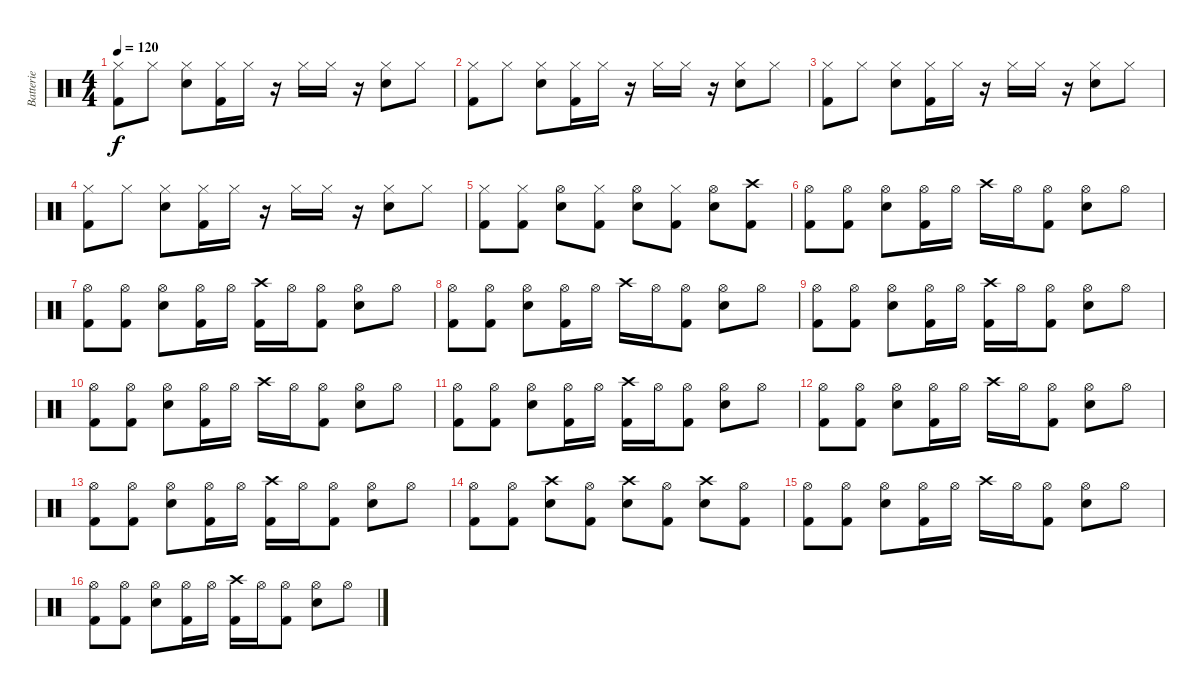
\track ("Batterie" "Batterie") {instrument percussion}
\staff {score}
\articulation defaults
\ts (4 4)
\tempo 120
\clef neutral
\ks c
("Hi-Hat (closed)" "Kick (hit) 2").8{dy f} "Hi-Hat (closed)".8 ("Hi-Hat (closed)" "Snare (hit) 2").8 ("Hi-Hat (closed)" "Kick (hit) 2").16 "Hi-Hat (closed)".16 r.16 "Hi-Hat (closed)".16 "Hi-Hat (closed)".16 r.16 ("Hi-Hat (closed)" "Snare (hit) 2").8 "Hi-Hat (closed)".8 |
("Hi-Hat (closed)" "Kick (hit) 2").8 "Hi-Hat (closed)".8 ("Hi-Hat (closed)" "Snare (hit) 2").8 ("Hi-Hat (closed)" "Kick (hit) 2").16 "Hi-Hat (closed)".16 r.16 "Hi-Hat (closed)".16 "Hi-Hat (closed)".16 r.16 ("Hi-Hat (closed)" "Snare (hit) 2").8 "Hi-Hat (closed)".8 |
("Hi-Hat (closed)" "Kick (hit) 2").8 "Hi-Hat (closed)".8 ("Hi-Hat (closed)" "Snare (hit) 2").8 ("Hi-Hat (closed)" "Kick (hit) 2").16 "Hi-Hat (closed)".16 r.16 "Hi-Hat (closed)".16 "Hi-Hat (closed)".16 r.16 ("Hi-Hat (closed)" "Snare (hit) 2").8 "Hi-Hat (closed)".8 |
("Hi-Hat (closed)" "Kick (hit) 2").8 "Hi-Hat (closed)".8 ("Hi-Hat (closed)" "Snare (hit) 2").8 ("Hi-Hat (closed)" "Kick (hit) 2").16 "Hi-Hat (closed)".16 r.16 "Hi-Hat (closed)".16 "Hi-Hat (closed)".16 r.16 ("Hi-Hat (closed)" "Snare (hit) 2").8 "Hi-Hat (closed)".8 |
("Hi-Hat (closed)" "Kick (hit) 2").8 ("Hi-Hat (closed)" "Kick (hit) 2").8 ("Hi-Hat (open)" "Snare (hit) 2").8 ("Hi-Hat (closed)" "Kick (hit) 2").8 ("Hi-Hat (open)" "Snare (hit) 2").8 ("Hi-Hat (closed)" "Kick (hit) 2").8 ("Hi-Hat (open)" "Snare (hit) 2").8 ("Crash high (hit)" "Kick (hit) 2").8 |
("Hi-Hat (open)" "Kick (hit) 2").8 ("Hi-Hat (open)" "Kick (hit) 2").8 ("Hi-Hat (open)" "Snare (hit) 2").8 ("Hi-Hat (open)" "Kick (hit) 2").16 "Hi-Hat (open)".16 "Crash high (hit)".16 "Hi-Hat (open)".16 ("Hi-Hat (open)" "Kick (hit) 2").8 ("Hi-Hat (open)" "Snare (hit) 2").8 "Hi-Hat (open)".8 |
("Hi-Hat (open)" "Kick (hit) 2").8 ("Hi-Hat (open)" "Kick (hit) 2").8 ("Hi-Hat (open)" "Snare (hit) 2").8 ("Hi-Hat (open)" "Kick (hit) 2").16 "Hi-Hat (open)".16 ("Crash high (hit)" "Kick (hit) 2").16 "Hi-Hat (open)".16 ("Hi-Hat (open)" "Kick (hit) 2").8 ("Hi-Hat (open)" "Snare (hit) 2").8 "Hi-Hat (open)".8 |
("Hi-Hat (open)" "Kick (hit) 2").8 ("Hi-Hat (open)" "Kick (hit) 2").8 ("Hi-Hat (open)" "Snare (hit) 2").8 ("Hi-Hat (open)" "Kick (hit) 2").16 "Hi-Hat (open)".16 "Crash high (hit)".16 "Hi-Hat (open)".16 ("Hi-Hat (open)" "Kick (hit) 2").8 ("Hi-Hat (open)" "Snare (hit) 2").8 "Hi-Hat (open)".8 |
("Hi-Hat (open)" "Kick (hit) 2").8 ("Hi-Hat (open)" "Kick (hit) 2").8 ("Hi-Hat (open)" "Snare (hit) 2").8 ("Hi-Hat (open)" "Kick (hit) 2").16 "Hi-Hat (open)".16 ("Crash high (hit)" "Kick (hit) 2").16 "Hi-Hat (open)".16 ("Hi-Hat (open)" "Kick (hit) 2").8 ("Hi-Hat (open)" "Snare (hit) 2").8 "Hi-Hat (open)".8 |
("Hi-Hat (open)" "Kick (hit) 2").8 ("Hi-Hat (open)" "Kick (hit) 2").8 ("Hi-Hat (open)" "Snare (hit) 2").8 ("Hi-Hat (open)" "Kick (hit) 2").16 "Hi-Hat (open)".16 "Crash high (hit)".16 "Hi-Hat (open)".16 ("Hi-Hat (open)" "Kick (hit) 2").8 ("Hi-Hat (open)" "Snare (hit) 2").8 "Hi-Hat (open)".8 |
("Hi-Hat (open)" "Kick (hit) 2").8 ("Hi-Hat (open)" "Kick (hit) 2").8 ("Hi-Hat (open)" "Snare (hit) 2").8 ("Hi-Hat (open)" "Kick (hit) 2").16 "Hi-Hat (open)".16 ("Crash high (hit)" "Kick (hit) 2").16 "Hi-Hat (open)".16 ("Hi-Hat (open)" "Kick (hit) 2").8 ("Hi-Hat (open)" "Snare (hit) 2").8 "Hi-Hat (open)".8 |
("Hi-Hat (open)" "Kick (hit) 2").8 ("Hi-Hat (open)" "Kick (hit) 2").8 ("Hi-Hat (open)" "Snare (hit) 2").8 ("Hi-Hat (open)" "Kick (hit) 2").16 "Hi-Hat (open)".16 "Crash high (hit)".16 "Hi-Hat (open)".16 ("Hi-Hat (open)" "Kick (hit) 2").8 ("Hi-Hat (open)" "Snare (hit) 2").8 "Hi-Hat (open)".8 |
("Hi-Hat (open)" "Kick (hit) 2").8 ("Hi-Hat (open)" "Kick (hit) 2").8 ("Hi-Hat (open)" "Snare (hit) 2").8 ("Hi-Hat (open)" "Kick (hit) 2").16 "Hi-Hat (open)".16 ("Crash high (hit)" "Kick (hit) 2").16 "Hi-Hat (open)".16 ("Hi-Hat (open)" "Kick (hit) 2").8 ("Hi-Hat (open)" "Snare (hit) 2").8 "Hi-Hat (open)".8 |
("Hi-Hat (open)" "Kick (hit) 2").8 ("Hi-Hat (open)" "Kick (hit) 2").8 ("Crash high (hit)" "Snare (hit) 2").8 ("Hi-Hat (open)" "Kick (hit) 2").8 ("Crash high (hit)" "Snare (hit) 2").8 ("Hi-Hat (open)" "Kick (hit) 2").8 ("Crash high (hit)" "Snare (hit) 2").8 ("Hi-Hat (open)" "Kick (hit) 2").8 |
("Hi-Hat (open)" "Kick (hit) 2").8 ("Hi-Hat (open)" "Kick (hit) 2").8 ("Hi-Hat (open)" "Snare (hit) 2").8 ("Hi-Hat (open)" "Kick (hit) 2").16 "Hi-Hat (open)".16 "Crash high (hit)".16 "Hi-Hat (open)".16 ("Hi-Hat (open)" "Kick (hit) 2").8 ("Hi-Hat (open)" "Snare (hit) 2").8 "Hi-Hat (open)".8 |
("Hi-Hat (open)" "Kick (hit) 2").8 ("Hi-Hat (open)" "Kick (hit) 2").8 ("Hi-Hat (open)" "Snare (hit) 2").8 ("Hi-Hat (open)" "Kick (hit) 2").16 "Hi-Hat (open)".16 ("Crash high (hit)" "Kick (hit) 2").16 "Hi-Hat (open)".16 ("Hi-Hat (open)" "Kick (hit) 2").8 ("Hi-Hat (open)" "Snare (hit) 2").8 "Hi-Hat (open)".8
